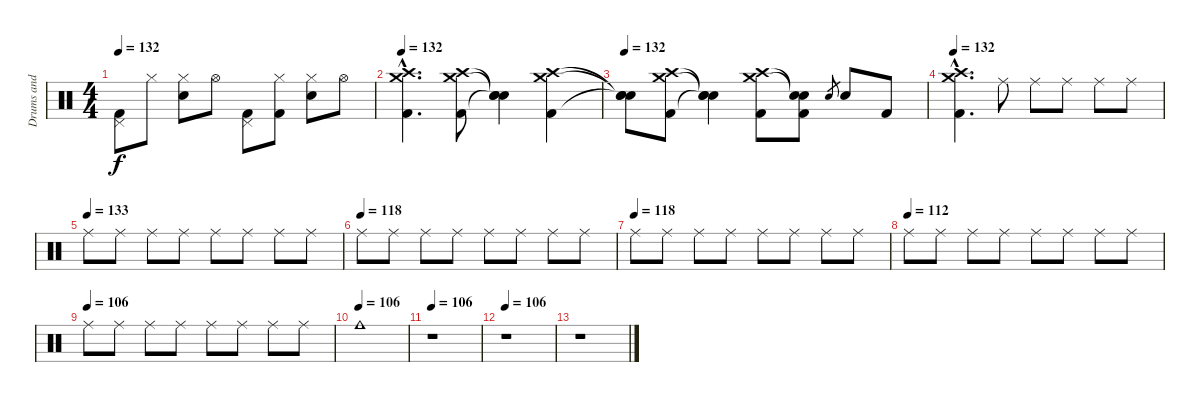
\track ("Drums and Percussion" "Drums and ") {instrument percussion}
\staff {score}
\articulation defaults
\ts (4 4)
\tempo 132
\clef neutral
\ks c
("Pedal Hi-Hat (hit)" "Kick (hit) 2").8{dy f} "Hi-Hat (closed)".8 ("Hi-Hat (closed)" "Electric Snare (hit)").8 "Hi-Hat (open)".8 ("Pedal Hi-Hat (hit)" "Kick (hit) 2").8 ("Hi-Hat (closed)" "Kick (hit) 2").8 ("Hi-Hat (closed)" "Electric Snare (hit)").8 "Hi-Hat (open)".8 |
\tempo 132
("Crash medium (hit)"{hac} "Crash high (hit)"{hac} "Kick (hit) 2"{hac}).4{d} ("Crash medium (hit)" "Crash high (hit)" "Kick (hit) 2").8 ("Snare (hit)"{t} "Snare (hit)"{t} "Snare (hit)"{t}).4 ("Crash medium (hit)" "Crash high (hit)" "Kick (hit) 2").4 |
\tempo 132
("Snare (hit)"{t} "Snare (hit)"{t} "Snare (hit)"{t}).8 ("Crash medium (hit)" "Crash high (hit)" "Kick (hit) 2").8 ("Snare (hit)"{t} "Snare (hit)"{t} "Snare (hit)"{t}).4 ("Crash medium (hit)" "Crash high (hit)" "Kick (hit) 2").8 ("Snare (hit)"{t} "Snare (hit)"{t} "Kick (hit) 2").8 "Electric Snare (hit)".8{gr} "Electric Snare (hit)".8 "Kick (hit) 2".8 |
\tempo 132
("Crash medium (hit)"{hac} "Crash high (hit)"{hac} "Kick (hit) 2"{hac}).4{d} "Ride (middle)".8 "Ride (middle)".8 "Ride (middle)".8 "Ride (middle)".8 "Ride (middle)".8 |
\tempo (133)
"Ride (middle)".8 "Ride (middle)".8 "Ride (middle)".8 "Ride (middle)".8 "Ride (middle)".8 "Ride (middle)".8 "Ride (middle)".8 "Ride (middle)".8 |
\tempo (118)
"Ride (middle)".8 "Ride (middle)".8 "Ride (middle)".8 "Ride (middle)".8 "Ride (middle)".8 "Ride (middle)".8 "Ride (middle)".8 "Ride (middle)".8 |
\tempo (118)
"Ride (middle)".8 "Ride (middle)".8 "Ride (middle)".8 "Ride (middle)".8 "Ride (middle)".8 "Ride (middle)".8 "Ride (middle)".8 "Ride (middle)".8 |
\tempo (112)
"Ride (middle)".8 "Ride (middle)".8 "Ride (middle)".8 "Ride (middle)".8 "Ride (middle)".8 "Ride (middle)".8 "Ride (middle)".8 "Ride (middle)".8 |
\tempo (106)
"Ride (middle)".8 "Ride (middle)".8 "Ride (middle)".8 "Ride (middle)".8 "Ride (middle)".8 "Ride (middle)".8 "Ride (middle)".8 "Ride (middle)".8 |
\tempo (106)
"Cowbell medium (hit)".1{volume 0} |
\tempo 106
r.1 |
\tempo 106
r.1 |
r.1
